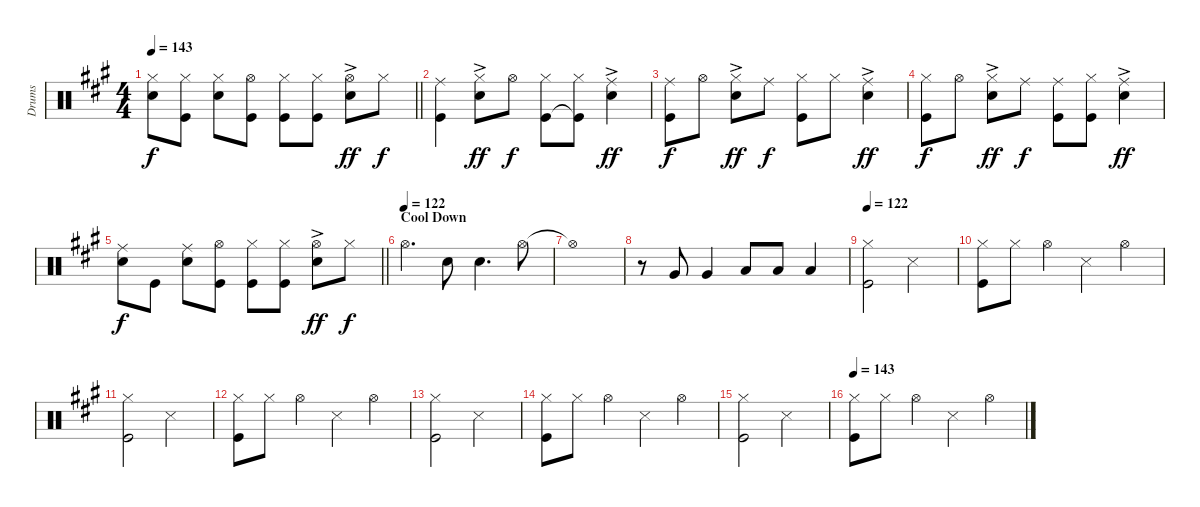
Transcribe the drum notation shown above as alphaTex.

\track ("Drums" "Drums") {instrument percussion}
\staff {score}
\articulation defaults
\ts (4 4)
\tempo 143
\clef neutral
\barLineRight lightlight
\ks a
("Hi-Hat (closed)" "Snare (hit) 2").8{dy f} ("Hi-Hat (closed)" "Kick (hit)").8 ("Hi-Hat (closed)" "Snare (hit) 2").8 ("Hi-Hat (open)" "Kick (hit)").8 ("Hi-Hat (closed)" "Kick (hit)").8 ("Hi-Hat (closed)" "Kick (hit)").8 ("Hi-Hat (open)" "Snare (hit) 2"{ac}).8{dy ff} "Hi-Hat (closed)".8{dy f} |
\section ("" "")
("Ride (middle)" "Kick (hit)").4 ("Hi-Hat (closed)" "Snare (hit) 2"{ac}).8{dy ff} "Hi-Hat (open)".8{dy f} ("Hi-Hat (closed)" "Kick (hit)").8 ("Hi-Hat (closed)" "Kick (hit)"{t}).8 ("Ride (middle)"{ac} "Snare (hit) 2").4{dy ff} |
("Ride (middle)" "Kick (hit)").8{dy f} "Hi-Hat (open)".8 ("Hi-Hat (closed)" "Snare (hit) 2"{ac}).8{dy ff} "Ride (middle)".8{dy f} ("Hi-Hat (closed)" "Kick (hit)").8 "Hi-Hat (closed)".8 ("Ride (middle)"{ac} "Snare (hit) 2").4{dy ff} |
("Hi-Hat (closed)" "Kick (hit)").8{dy f} "Hi-Hat (open)".8 ("Hi-Hat (closed)" "Snare (hit) 2"{ac}).8{dy ff} "Ride (middle)".8{dy f} ("Ride (middle)" "Kick (hit)").8 ("Hi-Hat (closed)" "Kick (hit)").8 ("Ride (middle)"{ac} "Snare (hit) 2").4{dy ff} |
\barLineRight lightlight
("Ride (middle)" "Snare (hit) 2").8{dy f} "Kick (hit)".8 ("Ride (middle)" "Snare (hit) 2").8 ("Hi-Hat (open)" "Kick (hit)").8 ("Hi-Hat (closed)" "Kick (hit)").8 ("Hi-Hat (closed)" "Kick (hit)").8 ("Hi-Hat (open)" "Snare (hit) 2"{ac}).8{dy ff} "Hi-Hat (closed)".8{dy f} |
\section ("" "Cool Down")
\tempo (122)
"Hi-Hat (open)".4{d} "Snare (hit) 2".8 "Snare (hit) 2".4{d} "Hi-Hat (open)".8 |
"Hi-Hat (open)"{t}.1 |
r.8 "Very Low Tom (hit)".8 "Very Low Tom (hit)".4 "Low Floor Tom (hit)".8 "Low Floor Tom (hit)".8 "Low Floor Tom (hit)".4 |
\tempo 122
("Hi-Hat (closed)" "Kick (hit)").2{volume 7} "Snare (side stick) 3".2 |
("Hi-Hat (closed)" "Kick (hit)").8 "Hi-Hat (closed)".8 "Hi-Hat (open)".4 "Snare (side stick) 3".4 "Hi-Hat (open)".4 |
("Hi-Hat (closed)" "Kick (hit)").2 "Snare (side stick) 3".2 |
("Hi-Hat (closed)" "Kick (hit)").8 "Hi-Hat (closed)".8 "Hi-Hat (open)".4 "Snare (side stick) 3".4 "Hi-Hat (open)".4 |
("Hi-Hat (closed)" "Kick (hit)").2 "Snare (side stick) 3".2 |
("Hi-Hat (closed)" "Kick (hit)").8 "Hi-Hat (closed)".8 "Hi-Hat (open)".4 "Snare (side stick) 3".4 "Hi-Hat (open)".4 |
("Hi-Hat (closed)" "Kick (hit)").2 "Snare (side stick) 3".2 |
\tempo 143
("Hi-Hat (closed)" "Kick (hit)").8 "Hi-Hat (closed)".8 "Hi-Hat (open)".4 "Snare (side stick) 3".4 "Hi-Hat (open)".4
